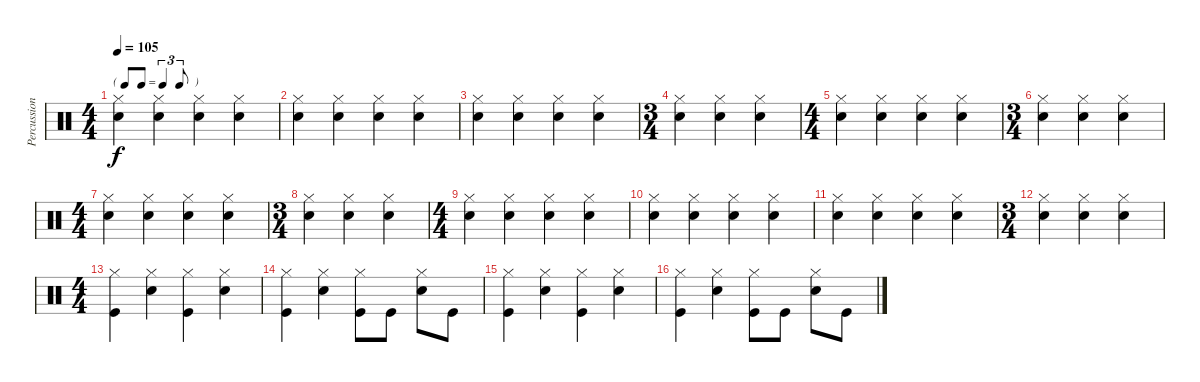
\track ("Percussion" "Percussion") {instrument percussion}
\staff {score}
\articulation defaults
\ts (4 4)
\tf triplet8th
\tempo 105
\clef neutral
\ks c
("Hi-Hat (closed)" "Snare (hit) 2").4{dy f} ("Hi-Hat (closed)" "Snare (hit) 2").4 ("Hi-Hat (closed)" "Snare (hit) 2").4 ("Hi-Hat (closed)" "Snare (hit) 2").4 |
("Hi-Hat (closed)" "Snare (hit) 2").4 ("Hi-Hat (closed)" "Snare (hit) 2").4 ("Hi-Hat (closed)" "Snare (hit) 2").4 ("Hi-Hat (closed)" "Snare (hit) 2").4 |
("Hi-Hat (closed)" "Snare (hit) 2").4 ("Hi-Hat (closed)" "Snare (hit) 2").4 ("Hi-Hat (closed)" "Snare (hit) 2").4 ("Hi-Hat (closed)" "Snare (hit) 2").4 |
\ts (3 4)
("Hi-Hat (closed)" "Snare (hit) 2").4 ("Hi-Hat (closed)" "Snare (hit) 2").4 ("Hi-Hat (closed)" "Snare (hit) 2").4 |
\ts (4 4)
("Hi-Hat (closed)" "Snare (hit) 2").4 ("Hi-Hat (closed)" "Snare (hit) 2").4 ("Hi-Hat (closed)" "Snare (hit) 2").4 ("Hi-Hat (closed)" "Snare (hit) 2").4 |
\ts (3 4)
("Hi-Hat (closed)" "Snare (hit) 2").4 ("Hi-Hat (closed)" "Snare (hit) 2").4 ("Hi-Hat (closed)" "Snare (hit) 2").4 |
\ts (4 4)
("Hi-Hat (closed)" "Snare (hit) 2").4 ("Hi-Hat (closed)" "Snare (hit) 2").4 ("Hi-Hat (closed)" "Snare (hit) 2").4 ("Hi-Hat (closed)" "Snare (hit) 2").4 |
\ts (3 4)
("Hi-Hat (closed)" "Snare (hit) 2").4 ("Hi-Hat (closed)" "Snare (hit) 2").4 ("Hi-Hat (closed)" "Snare (hit) 2").4 |
\ts (4 4)
("Hi-Hat (closed)" "Snare (hit) 2").4 ("Hi-Hat (closed)" "Snare (hit) 2").4 ("Hi-Hat (closed)" "Snare (hit) 2").4 ("Hi-Hat (closed)" "Snare (hit) 2").4 |
("Hi-Hat (closed)" "Snare (hit) 2").4 ("Hi-Hat (closed)" "Snare (hit) 2").4 ("Hi-Hat (closed)" "Snare (hit) 2").4 ("Hi-Hat (closed)" "Snare (hit) 2").4 |
("Hi-Hat (closed)" "Snare (hit) 2").4 ("Hi-Hat (closed)" "Snare (hit) 2").4 ("Hi-Hat (closed)" "Snare (hit) 2").4 ("Hi-Hat (closed)" "Snare (hit) 2").4 |
\ts (3 4)
("Hi-Hat (closed)" "Snare (hit) 2").4 ("Hi-Hat (closed)" "Snare (hit) 2").4 ("Hi-Hat (closed)" "Snare (hit) 2").4 |
\ts (4 4)
("Hi-Hat (closed)" "Kick (hit)").4 ("Hi-Hat (closed)" "Snare (hit) 2").4 ("Hi-Hat (closed)" "Kick (hit)").4 ("Hi-Hat (closed)" "Snare (hit) 2").4 |
("Hi-Hat (closed)" "Kick (hit)").4 ("Hi-Hat (closed)" "Snare (hit) 2").4 ("Hi-Hat (closed)" "Kick (hit)").8 "Kick (hit)".8 ("Hi-Hat (closed)" "Snare (hit) 2").8 "Kick (hit)".8 |
("Hi-Hat (closed)" "Kick (hit)").4 ("Hi-Hat (closed)" "Snare (hit) 2").4 ("Hi-Hat (closed)" "Kick (hit)").4 ("Hi-Hat (closed)" "Snare (hit) 2").4 |
("Hi-Hat (closed)" "Kick (hit)").4 ("Hi-Hat (closed)" "Snare (hit) 2").4 ("Hi-Hat (closed)" "Kick (hit)").8 "Kick (hit)".8 ("Hi-Hat (closed)" "Snare (hit) 2").8 "Kick (hit)".8
